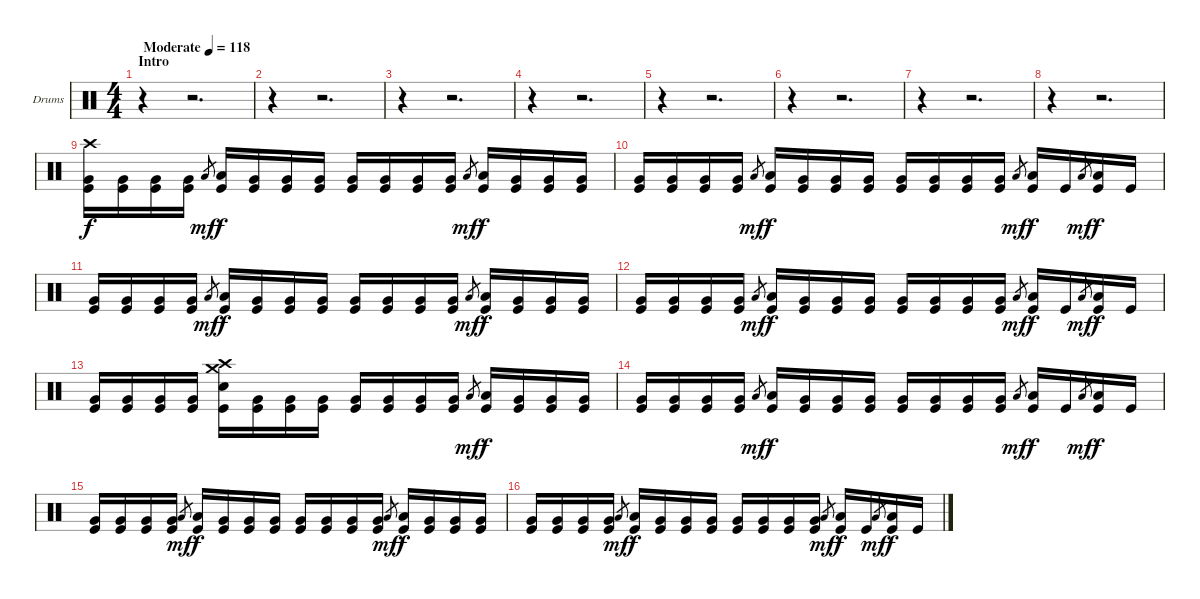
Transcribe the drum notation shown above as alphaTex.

\bracketExtendMode groupsimilarinstruments
\firstSystemTrackNameOrientation horizontal
\otherSystemsTrackNameOrientation horizontal
\track ("Drumkit" "Drums") {solo instrument percussion}
\staff {score}
\articulation defaults
\ts (4 4)
\beaming (8 2 2 2 2)
\section ("" "Intro")
\tempo (118 "Moderate")
\clef neutral
\ks c
r.4{dy f} r.2{d} |
r.4 r.2{d} |
r.4 r.2{d} |
r.4 r.2{d} |
r.4 r.2{d} |
r.4 r.2{d} |
r.4 r.2{d} |
r.4 r.2{d} |
("Kick (hit)" "Very Low Tom (hit)" "Crash high (hit)").16 ("Kick (hit)" "Very Low Tom (hit)").16 ("Kick (hit)" "Very Low Tom (hit)").16 ("Kick (hit)" "Very Low Tom (hit)").16 "Low Tom (hit)".8{gr dy mf} ("Kick (hit)" "Low Tom (hit)").16{dy f} ("Kick (hit)" "Very Low Tom (hit)").16 ("Kick (hit)" "Very Low Tom (hit)").16 ("Kick (hit)" "Very Low Tom (hit)").16 ("Kick (hit)" "Very Low Tom (hit)").16 ("Kick (hit)" "Very Low Tom (hit)").16 ("Kick (hit)" "Very Low Tom (hit)").16 ("Kick (hit)" "Very Low Tom (hit)").16 "Low Tom (hit)".8{gr dy mf} ("Kick (hit)" "Low Tom (hit)").16{dy f} ("Kick (hit)" "Very Low Tom (hit)").16 ("Kick (hit)" "Very Low Tom (hit)").16 ("Kick (hit)" "Very Low Tom (hit)").16 |
("Kick (hit)" "Very Low Tom (hit)").16 ("Kick (hit)" "Very Low Tom (hit)").16 ("Kick (hit)" "Very Low Tom (hit)").16 ("Kick (hit)" "Very Low Tom (hit)").16 "Low Tom (hit)".8{gr dy mf} ("Kick (hit)" "Low Tom (hit)").16{dy f} ("Kick (hit)" "Very Low Tom (hit)").16 ("Kick (hit)" "Very Low Tom (hit)").16 ("Kick (hit)" "Very Low Tom (hit)").16 ("Kick (hit)" "Very Low Tom (hit)").16 ("Kick (hit)" "Very Low Tom (hit)").16 ("Kick (hit)" "Very Low Tom (hit)").16 ("Kick (hit)" "Very Low Tom (hit)").16 "Low Tom (hit)".8{gr dy mf} ("Kick (hit)" "Low Tom (hit)").16{dy f} "Kick (hit)".16 "Low Tom (hit)".8{gr dy mf} ("Kick (hit)" "Low Tom (hit)").16{dy f} "Kick (hit)".16 |
("Kick (hit)" "Very Low Tom (hit)").16 ("Kick (hit)" "Very Low Tom (hit)").16 ("Kick (hit)" "Very Low Tom (hit)").16 ("Kick (hit)" "Very Low Tom (hit)").16 "Low Tom (hit)".8{gr dy mf} ("Kick (hit)" "Low Tom (hit)").16{dy f} ("Kick (hit)" "Very Low Tom (hit)").16 ("Kick (hit)" "Very Low Tom (hit)").16 ("Kick (hit)" "Very Low Tom (hit)").16 ("Kick (hit)" "Very Low Tom (hit)").16 ("Kick (hit)" "Very Low Tom (hit)").16 ("Kick (hit)" "Very Low Tom (hit)").16 ("Kick (hit)" "Very Low Tom (hit)").16 "Low Tom (hit)".8{gr dy mf} ("Kick (hit)" "Low Tom (hit)").16{dy f} ("Kick (hit)" "Very Low Tom (hit)").16 ("Kick (hit)" "Very Low Tom (hit)").16 ("Kick (hit)" "Very Low Tom (hit)").16 |
("Kick (hit)" "Very Low Tom (hit)").16 ("Kick (hit)" "Very Low Tom (hit)").16 ("Kick (hit)" "Very Low Tom (hit)").16 ("Kick (hit)" "Very Low Tom (hit)").16 "Low Tom (hit)".8{gr dy mf} ("Kick (hit)" "Low Tom (hit)").16{dy f} ("Kick (hit)" "Very Low Tom (hit)").16 ("Kick (hit)" "Very Low Tom (hit)").16 ("Kick (hit)" "Very Low Tom (hit)").16 ("Kick (hit)" "Very Low Tom (hit)").16 ("Kick (hit)" "Very Low Tom (hit)").16 ("Kick (hit)" "Very Low Tom (hit)").16 ("Kick (hit)" "Very Low Tom (hit)").16 "Low Tom (hit)".8{gr dy mf} ("Kick (hit)" "Low Tom (hit)").16{dy f} "Kick (hit)".16 "Low Tom (hit)".8{gr dy mf} ("Kick (hit)" "Low Tom (hit)").16{dy f} "Kick (hit)".16 |
("Kick (hit)" "Very Low Tom (hit)").16 ("Kick (hit)" "Very Low Tom (hit)").16 ("Kick (hit)" "Very Low Tom (hit)").16 ("Kick (hit)" "Very Low Tom (hit)").16 ("Kick (hit)" "Snare (hit) 2" "Crash high (hit)" "Crash medium (hit)").16 ("Kick (hit)" "Very Low Tom (hit)").16 ("Kick (hit)" "Very Low Tom (hit)").16 ("Kick (hit)" "Very Low Tom (hit)").16 ("Kick (hit)" "Very Low Tom (hit)").16 ("Kick (hit)" "Very Low Tom (hit)").16 ("Kick (hit)" "Very Low Tom (hit)").16 ("Kick (hit)" "Very Low Tom (hit)").16 "Low Tom (hit)".8{gr dy mf} ("Kick (hit)" "Low Tom (hit)").16{dy f} ("Kick (hit)" "Very Low Tom (hit)").16 ("Kick (hit)" "Very Low Tom (hit)").16 ("Kick (hit)" "Very Low Tom (hit)").16 |
("Kick (hit)" "Very Low Tom (hit)").16 ("Kick (hit)" "Very Low Tom (hit)").16 ("Kick (hit)" "Very Low Tom (hit)").16 ("Kick (hit)" "Very Low Tom (hit)").16 "Low Tom (hit)".8{gr dy mf} ("Kick (hit)" "Low Tom (hit)").16{dy f} ("Kick (hit)" "Very Low Tom (hit)").16 ("Kick (hit)" "Very Low Tom (hit)").16 ("Kick (hit)" "Very Low Tom (hit)").16 ("Kick (hit)" "Very Low Tom (hit)").16 ("Kick (hit)" "Very Low Tom (hit)").16 ("Kick (hit)" "Very Low Tom (hit)").16 ("Kick (hit)" "Very Low Tom (hit)").16 "Low Tom (hit)".8{gr dy mf} ("Kick (hit)" "Low Tom (hit)").16{dy f} "Kick (hit)".16 "Low Tom (hit)".8{gr dy mf} ("Kick (hit)" "Low Tom (hit)").16{dy f} "Kick (hit)".16 |
("Kick (hit)" "Very Low Tom (hit)").16 ("Kick (hit)" "Very Low Tom (hit)").16 ("Kick (hit)" "Very Low Tom (hit)").16 ("Kick (hit)" "Very Low Tom (hit)").16 "Low Tom (hit)".8{gr dy mf} ("Kick (hit)" "Low Tom (hit)").16{dy f} ("Kick (hit)" "Very Low Tom (hit)").16 ("Kick (hit)" "Very Low Tom (hit)").16 ("Kick (hit)" "Very Low Tom (hit)").16 ("Kick (hit)" "Very Low Tom (hit)").16 ("Kick (hit)" "Very Low Tom (hit)").16 ("Kick (hit)" "Very Low Tom (hit)").16 ("Kick (hit)" "Very Low Tom (hit)").16 "Low Tom (hit)".8{gr dy mf} ("Kick (hit)" "Low Tom (hit)").16{dy f} ("Kick (hit)" "Very Low Tom (hit)").16 ("Kick (hit)" "Very Low Tom (hit)").16 ("Kick (hit)" "Very Low Tom (hit)").16 |
("Kick (hit)" "Very Low Tom (hit)").16 ("Kick (hit)" "Very Low Tom (hit)").16 ("Kick (hit)" "Very Low Tom (hit)").16 ("Kick (hit)" "Very Low Tom (hit)").16 "Low Tom (hit)".8{gr dy mf} ("Kick (hit)" "Low Tom (hit)").16{dy f} ("Kick (hit)" "Very Low Tom (hit)").16 ("Kick (hit)" "Very Low Tom (hit)").16 ("Kick (hit)" "Very Low Tom (hit)").16 ("Kick (hit)" "Very Low Tom (hit)").16 ("Kick (hit)" "Very Low Tom (hit)").16 ("Kick (hit)" "Very Low Tom (hit)").16 ("Kick (hit)" "Very Low Tom (hit)").16 "Low Tom (hit)".8{gr dy mf} ("Kick (hit)" "Low Tom (hit)").16{dy f} "Kick (hit)".16 "Low Tom (hit)".8{gr dy mf} ("Kick (hit)" "Low Tom (hit)").16{dy f} "Kick (hit)".16
